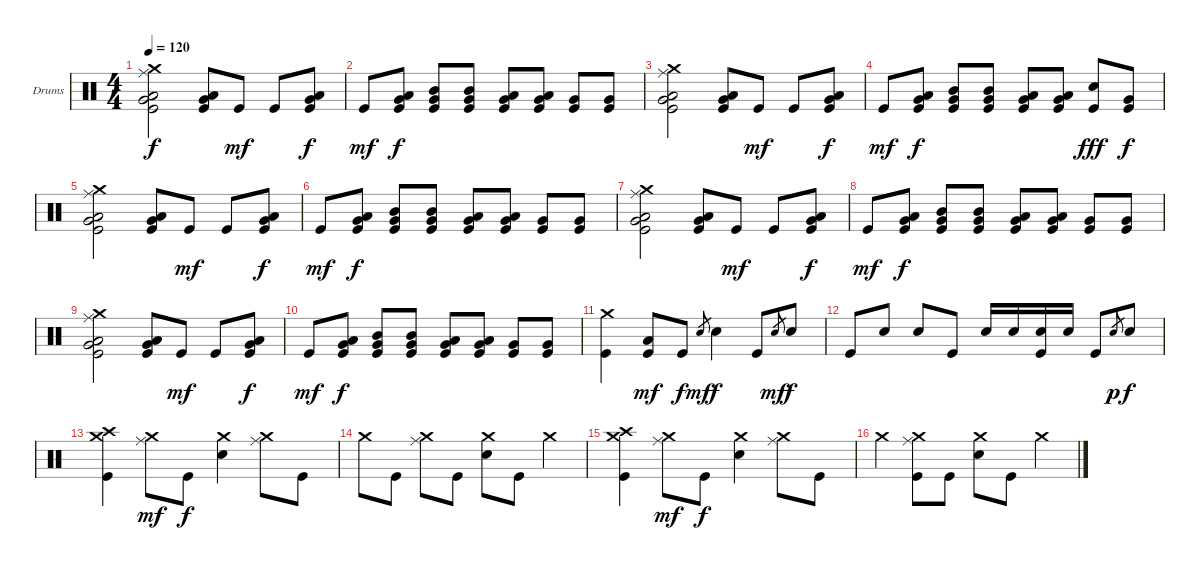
\defaultSystemsLayout 4
\bracketExtendMode groupsimilarinstruments
\firstSystemTrackNameOrientation horizontal
\otherSystemsTrackNameOrientation horizontal
\track ("Drumkit" "Drums") {instrument percussion}
\staff {score}
\articulation defaults
\ts (4 4)
\tempo 120
\clef neutral
\ks c
("Crash medium (hit)" "Ride (middle)" "Low Tom (hit)" "Very Low Tom (hit)" "Kick (hit)").2{dy f} ("Low Tom (hit)" "Very Low Tom (hit)" "Kick (hit)").8 "Kick (hit)".8{dy mf} "Kick (hit)".8 ("Low Tom (hit)" "Very Low Tom (hit)" "Kick (hit)").8{dy f} |
"Kick (hit)".8{dy mf} ("Low Tom (hit)" "Very Low Tom (hit)" "Kick (hit)").8{dy f} ("Mid Tom (hit)" "Very Low Tom (hit)" "Kick (hit)").8 ("Mid Tom (hit)" "Very Low Tom (hit)" "Kick (hit)").8 ("Low Tom (hit)" "Very Low Tom (hit)" "Kick (hit)").8 ("Low Tom (hit)" "Very Low Tom (hit)" "Kick (hit)").8 ("Very Low Tom (hit)" "Kick (hit)").8 ("Very Low Tom (hit)" "Kick (hit)").8 |
("Crash medium (hit)" "Ride (middle)" "Low Tom (hit)" "Very Low Tom (hit)" "Kick (hit)").2 ("Low Tom (hit)" "Very Low Tom (hit)" "Kick (hit)").8 "Kick (hit)".8{dy mf} "Kick (hit)".8 ("Low Tom (hit)" "Very Low Tom (hit)" "Kick (hit)").8{dy f} |
"Kick (hit)".8{dy mf} ("Low Tom (hit)" "Very Low Tom (hit)" "Kick (hit)").8{dy f} ("Mid Tom (hit)" "Very Low Tom (hit)" "Kick (hit)").8 ("Mid Tom (hit)" "Very Low Tom (hit)" "Kick (hit)").8 ("Low Tom (hit)" "Very Low Tom (hit)" "Kick (hit)").8 ("Low Tom (hit)" "Very Low Tom (hit)" "Kick (hit)").8 ("Snare (hit) 2" "Kick (hit)").8{dy fff} ("Very Low Tom (hit)" "Kick (hit)").8{dy f} |
("Crash medium (hit)" "Ride (middle)" "Low Tom (hit)" "Very Low Tom (hit)" "Kick (hit)").2 ("Low Tom (hit)" "Very Low Tom (hit)" "Kick (hit)").8 "Kick (hit)".8{dy mf} "Kick (hit)".8 ("Low Tom (hit)" "Very Low Tom (hit)" "Kick (hit)").8{dy f} |
"Kick (hit)".8{dy mf} ("Low Tom (hit)" "Very Low Tom (hit)" "Kick (hit)").8{dy f} ("Mid Tom (hit)" "Very Low Tom (hit)" "Kick (hit)").8 ("Mid Tom (hit)" "Very Low Tom (hit)" "Kick (hit)").8 ("Low Tom (hit)" "Very Low Tom (hit)" "Kick (hit)").8 ("Low Tom (hit)" "Very Low Tom (hit)" "Kick (hit)").8 ("Very Low Tom (hit)" "Kick (hit)").8 ("Very Low Tom (hit)" "Kick (hit)").8 |
("Crash medium (hit)" "Ride (middle)" "Low Tom (hit)" "Very Low Tom (hit)" "Kick (hit)").2 ("Low Tom (hit)" "Very Low Tom (hit)" "Kick (hit)").8 "Kick (hit)".8{dy mf} "Kick (hit)".8 ("Low Tom (hit)" "Very Low Tom (hit)" "Kick (hit)").8{dy f} |
"Kick (hit)".8{dy mf} ("Low Tom (hit)" "Very Low Tom (hit)" "Kick (hit)").8{dy f} ("Mid Tom (hit)" "Very Low Tom (hit)" "Kick (hit)").8 ("Mid Tom (hit)" "Very Low Tom (hit)" "Kick (hit)").8 ("Low Tom (hit)" "Very Low Tom (hit)" "Kick (hit)").8 ("Low Tom (hit)" "Very Low Tom (hit)" "Kick (hit)").8 ("Very Low Tom (hit)" "Kick (hit)").8 ("Very Low Tom (hit)" "Kick (hit)").8 |
("Crash medium (hit)" "Ride (middle)" "Low Tom (hit)" "Very Low Tom (hit)" "Kick (hit)").2 ("Low Tom (hit)" "Very Low Tom (hit)" "Kick (hit)").8 "Kick (hit)".8{dy mf} "Kick (hit)".8 ("Low Tom (hit)" "Very Low Tom (hit)" "Kick (hit)").8{dy f} |
"Kick (hit)".8{dy mf} ("Low Tom (hit)" "Very Low Tom (hit)" "Kick (hit)").8{dy f} ("Mid Tom (hit)" "Very Low Tom (hit)" "Kick (hit)").8 ("Mid Tom (hit)" "Very Low Tom (hit)" "Kick (hit)").8 ("Low Tom (hit)" "Very Low Tom (hit)" "Kick (hit)").8 ("Low Tom (hit)" "Very Low Tom (hit)" "Kick (hit)").8 ("Very Low Tom (hit)" "Kick (hit)").8 ("Very Low Tom (hit)" "Kick (hit)").8 |
("Crash medium (hit)" "Kick (hit)").4 ("Low Tom (hit)" "Kick (hit)").8{dy mf} "Kick (hit)".8{dy f} "Snare (hit) 2".8{gr dy mf} "Snare (hit) 2".4{dy f} "Kick (hit)".8 "Snare (hit) 2".8{gr dy mf} "Snare (hit) 2".8{dy f} |
"Kick (hit)".8 "Snare (hit) 2".8 "Snare (hit) 2".8 "Kick (hit)".8 "Snare (hit) 2".16 "Snare (hit) 2".16 ("Snare (hit) 2" "Kick (hit)").16 "Snare (hit) 2".16 "Kick (hit)".8 "Snare (hit) 2".8{gr dy p} "Snare (hit) 2".8{dy f} |
("Crash medium (hit)" "Crash high (hit)" "Kick (hit)").4 ("Crash medium (hit)" "Ride (middle)").8{dy mf} "Kick (hit)".8{dy f} ("Crash medium (hit)" "Snare (hit) 2").4 ("Crash medium (hit)" "Ride (middle)").8 "Kick (hit)".8 |
"Crash medium (hit)".8 "Kick (hit)".8 ("Crash medium (hit)" "Ride (middle)").8 "Kick (hit)".8 ("Crash medium (hit)" "Snare (hit) 2").8 "Kick (hit)".8 "Crash medium (hit)".4 |
("Crash medium (hit)" "Crash high (hit)" "Kick (hit)").4 ("Crash medium (hit)" "Ride (middle)").8{dy mf} "Kick (hit)".8{dy f} ("Crash medium (hit)" "Snare (hit) 2").4 ("Crash medium (hit)" "Ride (middle)").8 "Kick (hit)".8 |
"Crash medium (hit)".4 ("Crash medium (hit)" "Ride (middle)" "Kick (hit)").8 "Kick (hit)".8 ("Crash medium (hit)" "Snare (hit) 2").8 "Kick (hit)".8 "Crash medium (hit)".4
